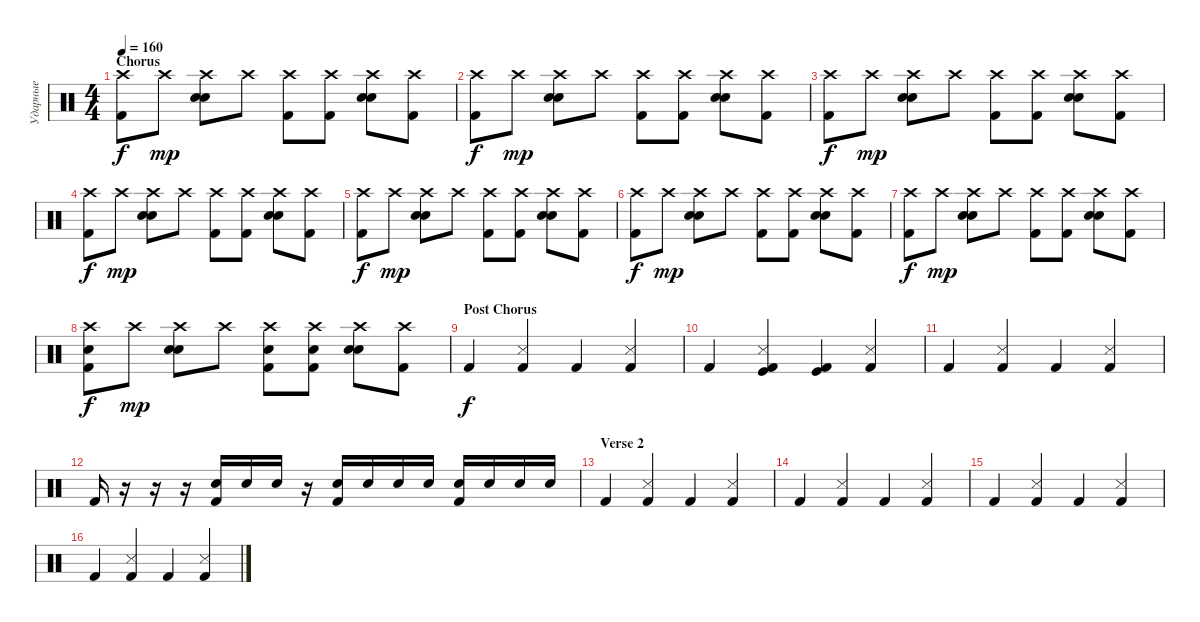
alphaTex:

\track ("Ударные" "Ударные") {instrument percussion}
\staff {score}
\articulation defaults
\ts (4 4)
\section ("" "Chorus")
\tempo 160
\clef neutral
\ks c
("Crash high (hit)" "Kick (hit) 2").8{dy f} "Crash high (hit)".8{dy mp} ("Crash high (hit)" "Electric Snare (hit)" "Electric Snare (hit)").8 "Crash high (hit)".8 ("Crash high (hit)" "Kick (hit) 2").8 ("Crash high (hit)" "Kick (hit) 2").8 ("Crash high (hit)" "Electric Snare (hit)" "Electric Snare (hit)").8 ("Crash high (hit)" "Kick (hit) 2").8 |
("Crash high (hit)" "Kick (hit) 2").8{dy f} "Crash high (hit)".8{dy mp} ("Crash high (hit)" "Electric Snare (hit)" "Electric Snare (hit)").8 "Crash high (hit)".8 ("Crash high (hit)" "Kick (hit) 2").8 ("Crash high (hit)" "Kick (hit) 2").8 ("Crash high (hit)" "Electric Snare (hit)" "Electric Snare (hit)").8 ("Crash high (hit)" "Kick (hit) 2").8 |
("Crash high (hit)" "Kick (hit) 2").8{dy f} "Crash high (hit)".8{dy mp} ("Crash high (hit)" "Electric Snare (hit)" "Electric Snare (hit)").8 "Crash high (hit)".8 ("Crash high (hit)" "Kick (hit) 2").8 ("Crash high (hit)" "Kick (hit) 2").8 ("Crash high (hit)" "Electric Snare (hit)" "Electric Snare (hit)").8 ("Crash high (hit)" "Kick (hit) 2").8 |
("Crash high (hit)" "Kick (hit) 2").8{dy f} "Crash high (hit)".8{dy mp} ("Crash high (hit)" "Electric Snare (hit)" "Electric Snare (hit)").8 "Crash high (hit)".8 ("Crash high (hit)" "Kick (hit) 2").8 ("Crash high (hit)" "Kick (hit) 2").8 ("Crash high (hit)" "Electric Snare (hit)" "Electric Snare (hit)").8 ("Crash high (hit)" "Kick (hit) 2").8 |
("Crash high (hit)" "Kick (hit) 2").8{dy f} "Crash high (hit)".8{dy mp} ("Crash high (hit)" "Electric Snare (hit)" "Electric Snare (hit)").8 "Crash high (hit)".8 ("Crash high (hit)" "Kick (hit) 2").8 ("Crash high (hit)" "Kick (hit) 2").8 ("Crash high (hit)" "Electric Snare (hit)" "Electric Snare (hit)").8 ("Crash high (hit)" "Kick (hit) 2").8 |
("Crash high (hit)" "Kick (hit) 2").8{dy f} "Crash high (hit)".8{dy mp} ("Crash high (hit)" "Electric Snare (hit)" "Electric Snare (hit)").8 "Crash high (hit)".8 ("Crash high (hit)" "Kick (hit) 2").8 ("Crash high (hit)" "Kick (hit) 2").8 ("Crash high (hit)" "Electric Snare (hit)" "Electric Snare (hit)").8 ("Crash high (hit)" "Kick (hit) 2").8 |
("Crash high (hit)" "Kick (hit) 2").8{dy f} "Crash high (hit)".8{dy mp} ("Crash high (hit)" "Electric Snare (hit)" "Electric Snare (hit)").8 "Crash high (hit)".8 ("Crash high (hit)" "Kick (hit) 2").8 ("Crash high (hit)" "Kick (hit) 2").8 ("Crash high (hit)" "Electric Snare (hit)" "Electric Snare (hit)").8 ("Crash high (hit)" "Kick (hit) 2").8 |
("Crash high (hit)" "Electric Snare (hit)" "Kick (hit) 2").8{dy f} "Crash high (hit)".8{dy mp} ("Crash high (hit)" "Electric Snare (hit)" "Electric Snare (hit)").8 "Crash high (hit)".8 ("Crash high (hit)" "Electric Snare (hit)" "Kick (hit) 2").8 ("Crash high (hit)" "Electric Snare (hit)" "Kick (hit) 2").8 ("Crash high (hit)" "Electric Snare (hit)" "Electric Snare (hit)").8 ("Crash high (hit)" "Kick (hit) 2").8 |
\section ("" "Post Chorus")
"Kick (hit) 2".4{dy f} ("Snare (side stick) 3" "Kick (hit) 2").4 "Kick (hit) 2".4 ("Snare (side stick) 3" "Kick (hit) 2").4 |
"Kick (hit) 2".4 ("Snare (side stick) 3" "Kick (hit) 2" "Kick (hit)").4 ("Kick (hit) 2" "Kick (hit)").4 ("Snare (side stick) 3" "Kick (hit) 2").4 |
"Kick (hit) 2".4 ("Snare (side stick) 3" "Kick (hit) 2").4 "Kick (hit) 2".4 ("Snare (side stick) 3" "Kick (hit) 2").4 |
"Kick (hit) 2".16 r.16 r.16 r.16 ("Electric Snare (hit)" "Kick (hit) 2").16 "Electric Snare (hit)".16 "Electric Snare (hit)".16 r.16 ("Electric Snare (hit)" "Kick (hit) 2").16 "Electric Snare (hit)".16 "Electric Snare (hit)".16 "Electric Snare (hit)".16 ("Electric Snare (hit)" "Kick (hit) 2").16 "Electric Snare (hit)".16 "Electric Snare (hit)".16 "Electric Snare (hit)".16 |
\section ("" "Verse 2")
"Kick (hit) 2".4 ("Snare (side stick) 3" "Kick (hit) 2").4 "Kick (hit) 2".4 ("Snare (side stick) 3" "Kick (hit) 2").4 |
"Kick (hit) 2".4 ("Snare (side stick) 3" "Kick (hit) 2").4 "Kick (hit) 2".4 ("Snare (side stick) 3" "Kick (hit) 2").4 |
"Kick (hit) 2".4 ("Snare (side stick) 3" "Kick (hit) 2").4 "Kick (hit) 2".4 ("Snare (side stick) 3" "Kick (hit) 2").4 |
"Kick (hit) 2".4 ("Snare (side stick) 3" "Kick (hit) 2").4 "Kick (hit) 2".4 ("Snare (side stick) 3" "Kick (hit) 2").4
